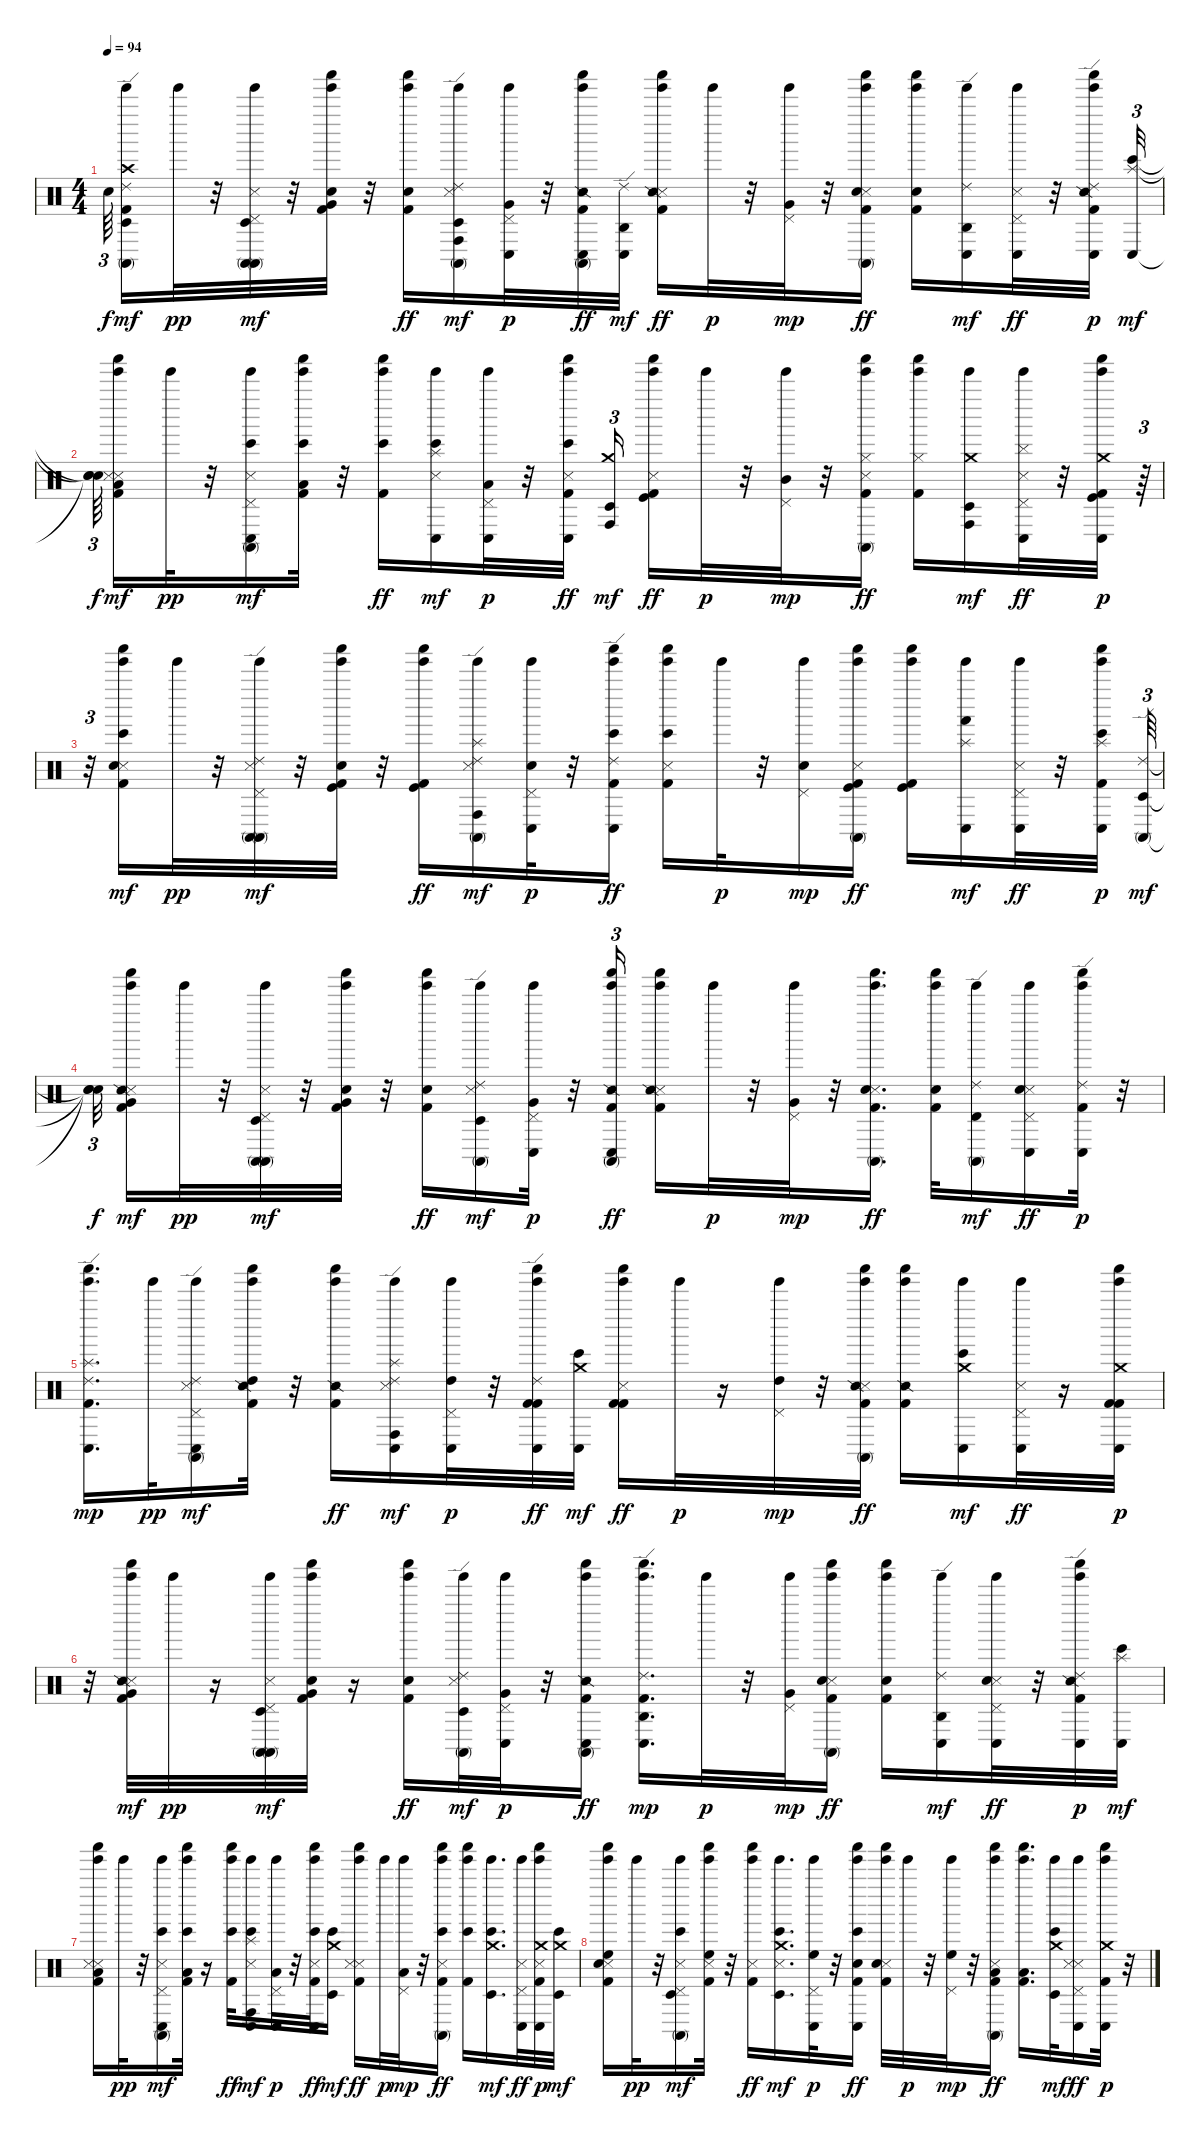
\track "" {instrument percussion}
\staff {score}
\articulation defaults
\ts (4 4)
\tempo 94
\clef neutral
\ks c "Snare (hit)"{t}.64{tu (3 2) dy f beam splitsecondary}
("Conga high (mute)" "Timbale low (hit)" "Ride (edge) 2" "Crash high (hit)" "Kick (hit) 2" "Tinkle Bell (hit)").16{dy mf volume 6} "Tinkle Bell (hit)".32{dy pp} r.32 ("Tinkle Bell (hit)" "Conga high (mute)" "Snare (side stick) 3" "Pedal Hi-Hat (hit)" "Conga high (mute)" "Timbale low (hit)").32{dy mf} r.32 ("Kick (hit) 2" "Tinkle Bell (hit)" "Shaker (hit)" "Snare (hit) 2" "Very Low Tom (hit)").32 r.32 ("Kick (hit) 2" "Tinkle Bell (hit)" "Shaker (hit)" "Snare (hit) 2").16{dy ff} ("Tinkle Bell (hit)" "Conga high (hit)" "Snare (side stick) 3" "Timbale low (hit)" "Conga high (mute)" "Ride (edge) 2").16{dy mf} ("Tinkle Bell (hit)" "Conga low (hit)" "Pedal Hi-Hat (hit)" "Very Low Tom (hit)").32{dy p} r.32 ("Kick (hit) 2" "Tinkle Bell (hit)" "Shaker (hit)" "Conga low (hit)" "Snare (side stick) 2" "Conga high (mute)").32{dy ff} ("Conga low (hit)" "Agogo high (hit)" "Ride (edge) 2").32{dy mf volume 6} ("Kick (hit) 2" "Tinkle Bell (hit)" "Shaker (hit)" "Snare (side stick) 3" "Snare (side stick) 2").16{dy ff} "Tinkle Bell (hit)".32{dy p} r.32 ("Tinkle Bell (hit)" "Pedal Hi-Hat (hit)" "Very Low Tom (hit)").32{dy mp} r.32 ("Conga high (mute)" "Kick (hit) 2" "Tinkle Bell (hit)" "Shaker (hit)" "Snare (side stick) 3" "Snare (hit) 2").16{dy ff} ("Kick (hit) 2" "Tinkle Bell (hit)" "Shaker (hit)" "Snare (hit) 2").16 ("Tinkle Bell (hit)" "Conga low (hit)" "Ride (edge) 2" "Agogo high (hit)").16{dy mf} ("Tinkle Bell (hit)" "Conga low (hit)" "Snare (side stick) 3" "Pedal Hi-Hat (hit)").32{dy ff} r.32 ("Kick (hit) 2" "Tinkle Bell (hit)" "Shaker (hit)" "Conga low (hit)" "Snare (side stick) 2" "Ride (edge) 2").32{dy p volume 7} ("Bongo High (hit)" "Conga low (hit)" "Splash (hit)").32{tu (3 2) dy mf volume 6} |
("Snare (hit)"{t} "Snare (hit)"{t} "Snare (hit)"{t}).64{tu (3 2) dy f beam splitsecondary} ("Kick (hit) 2" "Tinkle Bell (hit)" "Shaker (hit)" "Snare (side stick) 3" "Metronome (hit)" "Low Tom (hit)").16{dy mf} "Tinkle Bell (hit)".32{dy pp} r.32 ("Tinkle Bell (hit)" "Conga high (mute)" "Snare (side stick) 3" "Pedal Hi-Hat (hit)" "Bongo High (hit)" "Conga low (hit)").16{dy mf} ("Kick (hit) 2" "Tinkle Bell (hit)" "Shaker (hit)" "Bongo High (hit)" "Low Tom (hit)").32 r.32 ("Kick (hit) 2" "Tinkle Bell (hit)" "Shaker (hit)" "Bongo High (hit)").16{dy ff} ("Tinkle Bell (hit)" "Snare (side stick) 3" "Conga low (hit)" "Bongo High (hit)" "Splash (hit)").16{dy mf} ("Tinkle Bell (hit)" "Conga low (hit)" "Pedal Hi-Hat (hit)" "Low Tom (hit)").32{dy p} r.32 ("Kick (hit) 2" "Tinkle Bell (hit)" "Shaker (hit)" "Conga low (hit)" "Metronome (hit)" "Bongo High (hit)").32{dy ff volume 7} ("Conga high (hit)" "Timbale low (hit)" "Crash medium (hit)").16{tu (3 2) dy mf volume 6} ("Kick (hit) 2" "Tinkle Bell (hit)" "Shaker (hit)" "Snare (side stick) 3" "Kick (hit)").16{dy ff} "Tinkle Bell (hit)".32{dy p} r.32 ("Tinkle Bell (hit)" "Pedal Hi-Hat (hit)" "Mid Tom (hit)").32{dy mp} r.32 ("Conga high (mute)" "Kick (hit) 2" "Tinkle Bell (hit)" "Shaker (hit)" "Snare (side stick) 3" "Hi-Hat (closed)").16{dy ff} ("Kick (hit) 2" "Tinkle Bell (hit)" "Shaker (hit)" "Hi-Hat (closed)").16 ("Tinkle Bell (hit)" "Conga high (hit)" "Crash medium (hit)" "Timbale low (hit)").16{dy mf} ("Tinkle Bell (hit)" "Conga low (hit)" "Snare (side stick) 3" "Pedal Hi-Hat (hit)" "Cymbal (hit)").32{dy ff} r.32 ("Kick (hit) 2" "Tinkle Bell (hit)" "Shaker (hit)" "Conga low (hit)" "Kick (hit)" "Crash medium (hit)").32{dy p} r.64{tu (3 2)} |
r.32{tu (3 2)} ("Kick (hit) 2" "Tinkle Bell (hit)" "Shaker (hit)" "Snare (side stick) 3" "Bongo High (hit)" "Electric Snare (hit)").16{dy mf} "Tinkle Bell (hit)".32{dy pp} r.32 ("Tinkle Bell (hit)" "Conga high (mute)" "Snare (side stick) 3" "Pedal Hi-Hat (hit)" "Ride (edge) 2" "Conga high (mute)").32{dy mf} r.32 ("Kick (hit) 2" "Tinkle Bell (hit)" "Shaker (hit)" "Kick (hit)" "Electric Snare (hit)").32 r.32 ("Kick (hit) 2" "Tinkle Bell (hit)" "Shaker (hit)" "Kick (hit)").16{dy ff} ("Tinkle Bell (hit)" "Conga high (hit)" "Snare (side stick) 3" "Conga high (mute)" "Ride (edge) 2" "Splash (hit)").16{dy mf} ("Tinkle Bell (hit)" "Conga low (hit)" "Pedal Hi-Hat (hit)" "Electric Snare (hit)").32{dy p} r.32 ("Kick (hit) 2" "Tinkle Bell (hit)" "Shaker (hit)" "Conga low (hit)" "Bongo High (hit)" "Ride (edge) 2").16{dy ff volume 7} ("Kick (hit) 2" "Tinkle Bell (hit)" "Shaker (hit)" "Snare (side stick) 3" "Bongo High (hit)").16 "Tinkle Bell (hit)".32{dy p} r.32 ("Tinkle Bell (hit)" "Pedal Hi-Hat (hit)" "Electric Snare (hit)").16{dy mp} ("Conga high (mute)" "Kick (hit) 2" "Tinkle Bell (hit)" "Shaker (hit)" "Snare (side stick) 3" "Kick (hit)").16{dy ff} ("Kick (hit) 2" "Tinkle Bell (hit)" "Shaker (hit)" "Kick (hit)").16 ("Tinkle Bell (hit)" "Hand (hit)" "Splash (hit)" "Conga low (hit)").16{dy mf} ("Tinkle Bell (hit)" "Conga low (hit)" "Snare (side stick) 3" "Pedal Hi-Hat (hit)").32{dy ff} r.32 ("Kick (hit) 2" "Tinkle Bell (hit)" "Shaker (hit)" "Conga low (hit)" "Bongo High (hit)" "Splash (hit)").32{dy p volume 7} ("Conga high (mute)" "Timbale low (hit)" "Ride (edge) 2").64{tu (3 2) dy mf volume 6} |
("Snare (hit)"{t} "Snare (hit)"{t} "Snare (hit)"{t}).32{tu (3 2) dy f beam splitsecondary} ("Kick (hit) 2" "Tinkle Bell (hit)" "Shaker (hit)" "Snare (side stick) 3" "Snare (side stick) 2" "Very Low Tom (hit)").16{dy mf} "Tinkle Bell (hit)".32{dy pp} r.32 ("Tinkle Bell (hit)" "Conga high (mute)" "Snare (side stick) 3" "Pedal Hi-Hat (hit)" "Conga high (mute)" "Timbale low (hit)").32{dy mf} r.32 ("Kick (hit) 2" "Tinkle Bell (hit)" "Shaker (hit)" "Snare (hit) 2" "Very Low Tom (hit)").32 r.32 ("Kick (hit) 2" "Tinkle Bell (hit)" "Shaker (hit)" "Snare (hit) 2").16{dy ff} ("Tinkle Bell (hit)" "Snare (side stick) 3" "Timbale low (hit)" "Conga high (mute)" "Ride (edge) 2").16{dy mf} ("Tinkle Bell (hit)" "Conga low (hit)" "Pedal Hi-Hat (hit)" "Very Low Tom (hit)").32{dy p} r.32 ("Kick (hit) 2" "Tinkle Bell (hit)" "Shaker (hit)" "Conga low (hit)" "Snare (side stick) 2" "Conga high (mute)").16{tu (3 2) dy ff volume 7} ("Kick (hit) 2" "Tinkle Bell (hit)" "Shaker (hit)" "Snare (side stick) 3" "Snare (side stick) 2").16 "Tinkle Bell (hit)".32{dy p} r.32 ("Tinkle Bell (hit)" "Pedal Hi-Hat (hit)" "Very Low Tom (hit)").32{dy mp} r.32 ("Kick (hit) 2" "Tinkle Bell (hit)" "Shaker (hit)" "Conga high (mute)" "Snare (side stick) 3" "Snare (hit) 2").16{d dy ff} ("Kick (hit) 2" "Tinkle Bell (hit)" "Shaker (hit)" "Snare (hit) 2").32 ("Tinkle Bell (hit)" "Conga high (mute)" "Ride (edge) 2" "Timbale high (hit)").16{dy mf} ("Tinkle Bell (hit)" "Conga low (hit)" "Snare (side stick) 3" "Pedal Hi-Hat (hit)" "Snare (hit) 2").16{dy ff} ("Kick (hit) 2" "Tinkle Bell (hit)" "Shaker (hit)" "Conga low (hit)" "Ride (edge) 2").32{dy p volume 7} r.32 |
("Ride (edge) 2" "Conga low (hit)" "Splash (hit)" "Kick (hit) 2" "Tinkle Bell (hit)" "Shaker (hit)").16{d dy mp volume 6} "Tinkle Bell (hit)".32{dy pp} ("Tinkle Bell (hit)" "Conga high (mute)" "Snare (side stick) 3" "Pedal Hi-Hat (hit)" "Ride (edge) 2" "Conga low (hit)").16{dy mf} ("Kick (hit) 2" "Tinkle Bell (hit)" "Shaker (hit)" "Snare (side stick) 2" "High Tom (hit)").32 r.32 ("Kick (hit) 2" "Tinkle Bell (hit)" "Shaker (hit)" "Snare (side stick) 2").16{dy ff} ("Tinkle Bell (hit)" "Conga high (hit)" "Snare (side stick) 3" "Conga low (hit)" "Ride (edge) 2" "Splash (hit)").16{dy mf} ("Tinkle Bell (hit)" "Conga low (hit)" "Pedal Hi-Hat (hit)" "High Tom (hit)").32{dy p} r.32 ("Kick (hit) 2" "Tinkle Bell (hit)" "Shaker (hit)" "Conga low (hit)" "Kick (hit) 2" "Ride (edge) 2").32{dy ff} ("Bongo High (hit)" "Conga low (hit)" "Crash medium (hit)").32{dy mf volume 6} ("Kick (hit) 2" "Tinkle Bell (hit)" "Shaker (hit)" "Snare (side stick) 3" "Kick (hit) 2").16{dy ff} "Tinkle Bell (hit)".32{dy p} r.16 ("Tinkle Bell (hit)" "Pedal Hi-Hat (hit)" "High Tom (hit)").32{dy mp} r.32 ("Conga high (mute)" "Kick (hit) 2" "Tinkle Bell (hit)" "Shaker (hit)" "Snare (side stick) 3" "Snare (side stick) 2").32{dy ff} ("Kick (hit) 2" "Tinkle Bell (hit)" "Shaker (hit)" "Snare (side stick) 2").16 ("Tinkle Bell (hit)" "Bongo High (hit)" "Crash medium (hit)" "Conga low (hit)").16{dy mf} ("Tinkle Bell (hit)" "Conga low (hit)" "Snare (side stick) 3" "Pedal Hi-Hat (hit)").32{dy ff} r.16 ("Kick (hit) 2" "Tinkle Bell (hit)" "Shaker (hit)" "Conga low (hit)" "Kick (hit) 2" "Crash medium (hit)").32{dy p volume 7} |
r.32 ("Kick (hit) 2" "Tinkle Bell (hit)" "Shaker (hit)" "Snare (side stick) 3" "Snare (side stick) 2" "Very Low Tom (hit)").32{dy mf} "Tinkle Bell (hit)".32{dy pp} r.16 ("Tinkle Bell (hit)" "Conga high (mute)" "Snare (side stick) 3" "Pedal Hi-Hat (hit)" "Conga high (mute)" "Timbale low (hit)").32{dy mf} ("Kick (hit) 2" "Tinkle Bell (hit)" "Shaker (hit)" "Snare (hit) 2" "Very Low Tom (hit)").32 r.16 ("Kick (hit) 2" "Tinkle Bell (hit)" "Shaker (hit)" "Snare (hit) 2").16{dy ff} ("Tinkle Bell (hit)" "Snare (side stick) 3" "Timbale low (hit)" "Conga high (mute)" "Ride (edge) 2").32{dy mf} ("Tinkle Bell (hit)" "Conga low (hit)" "Pedal Hi-Hat (hit)" "Very Low Tom (hit)").32{dy p} r.32 ("Kick (hit) 2" "Tinkle Bell (hit)" "Shaker (hit)" "Conga low (hit)" "Snare (side stick) 2" "Conga high (mute)").16{dy ff volume 7} ("Conga low (hit)" "Agogo high (hit)" "Ride (edge) 2" "Kick (hit) 2" "Tinkle Bell (hit)" "Shaker (hit)").16{d dy mp volume 6} "Tinkle Bell (hit)".32{dy p} r.32 ("Tinkle Bell (hit)" "Pedal Hi-Hat (hit)" "Very Low Tom (hit)").32{dy mp} ("Conga high (mute)" "Kick (hit) 2" "Tinkle Bell (hit)" "Shaker (hit)" "Snare (side stick) 3" "Snare (hit) 2").16{dy ff} ("Kick (hit) 2" "Tinkle Bell (hit)" "Shaker (hit)" "Snare (hit) 2").16 ("Tinkle Bell (hit)" "Conga low (hit)" "Ride (edge) 2" "Agogo high (hit)").16{dy mf} ("Tinkle Bell (hit)" "Conga low (hit)" "Snare (side stick) 3" "Pedal Hi-Hat (hit)" "Snare (hit) 2").32{dy ff} r.32 ("Kick (hit) 2" "Tinkle Bell (hit)" "Shaker (hit)" "Conga low (hit)" "Snare (side stick) 2" "Ride (edge) 2").32{dy p volume 7} ("Bongo High (hit)" "Conga low (hit)" "Splash (hit)").32{dy mf volume 6} |
("Kick (hit) 2" "Tinkle Bell (hit)" "Shaker (hit)" "Snare (side stick) 3" "Metronome (hit)" "Low Tom (hit)").16 "Tinkle Bell (hit)".32{dy pp} r.32 ("Tinkle Bell (hit)" "Conga high (mute)" "Snare (side stick) 3" "Pedal Hi-Hat (hit)" "Bongo High (hit)" "Conga low (hit)").16{dy mf} ("Kick (hit) 2" "Tinkle Bell (hit)" "Shaker (hit)" "Bongo High (hit)" "Low Tom (hit)").32 r.16 ("Kick (hit) 2" "Tinkle Bell (hit)" "Shaker (hit)" "Bongo High (hit)").32{dy ff} ("Tinkle Bell (hit)" "Conga high (hit)" "Snare (side stick) 3" "Conga low (hit)" "Bongo High (hit)" "Splash (hit)").16{dy mf} ("Tinkle Bell (hit)" "Conga low (hit)" "Pedal Hi-Hat (hit)" "Low Tom (hit)").32{dy p} r.32 ("Kick (hit) 2" "Tinkle Bell (hit)" "Shaker (hit)" "Conga low (hit)" "Metronome (hit)" "Bongo High (hit)").32{dy ff volume 7} ("Bongo High (hit)" "Timbale low (hit)" "Crash medium (hit)").16{dy mf volume 6} ("Kick (hit) 2" "Tinkle Bell (hit)" "Shaker (hit)" "Snare (side stick) 3" "Metronome (hit)").16{dy ff} "Tinkle Bell (hit)".32{dy p} ("Tinkle Bell (hit)" "Pedal Hi-Hat (hit)" "Low Tom (hit)").32{dy mp} r.32 ("Conga high (mute)" "Kick (hit) 2" "Tinkle Bell (hit)" "Shaker (hit)" "Snare (side stick) 3" "Bongo High (hit)").16{dy ff} ("Kick (hit) 2" "Tinkle Bell (hit)" "Shaker (hit)" "Bongo High (hit)").16 ("Tinkle Bell (hit)" "Bongo High (hit)" "Crash medium (hit)" "Timbale low (hit)").16{d dy mf} ("Tinkle Bell (hit)" "Conga low (hit)" "Snare (side stick) 3" "Pedal Hi-Hat (hit)").32{dy ff} ("Kick (hit) 2" "Tinkle Bell (hit)" "Shaker (hit)" "Conga low (hit)" "Metronome (hit)" "Crash medium (hit)").32{dy p volume 7} ("Bongo High (hit)" "Timbale low (hit)" "Crash medium (hit)").32{dy mf volume 6} |
("Kick (hit) 2" "Tinkle Bell (hit)" "Shaker (hit)" "Snare (side stick) 3" "Snare (hit) 2" "High Floor Tom (hit)").16 "Tinkle Bell (hit)".32{dy pp} r.32 ("Tinkle Bell (hit)" "Conga high (mute)" "Snare (side stick) 3" "Pedal Hi-Hat (hit)" "Bongo High (hit)" "Timbale low (hit)").16{dy mf} ("Kick (hit) 2" "Tinkle Bell (hit)" "Shaker (hit)" "Metronome (hit)" "High Floor Tom (hit)").32 r.32 ("Kick (hit) 2" "Tinkle Bell (hit)" "Shaker (hit)" "Metronome (hit)").16{dy ff} ("Tinkle Bell (hit)" "Snare (side stick) 3" "Timbale low (hit)" "Bongo High (hit)" "Crash medium (hit)").16{d dy mf} ("Tinkle Bell (hit)" "Conga low (hit)" "Pedal Hi-Hat (hit)" "High Floor Tom (hit)").32{dy p} r.32 ("Kick (hit) 2" "Tinkle Bell (hit)" "Shaker (hit)" "Conga low (hit)" "Snare (hit) 2" "Bongo High (hit)").16{dy ff} ("Kick (hit) 2" "Tinkle Bell (hit)" "Shaker (hit)" "Snare (side stick) 3" "Snare (hit) 2").32 "Tinkle Bell (hit)".32{dy p} r.32 ("Tinkle Bell (hit)" "Pedal Hi-Hat (hit)" "High Floor Tom (hit)").32{dy mp} r.32 ("Kick (hit) 2" "Tinkle Bell (hit)" "Shaker (hit)" "Conga high (mute)" "Snare (side stick) 3" "Low Tom (hit)").16{dy ff} ("Kick (hit) 2" "Tinkle Bell (hit)" "Shaker (hit)" "Low Tom (hit)").16{d} ("Tinkle Bell (hit)" "Bongo High (hit)" "Crash medium (hit)" "Timbale low (hit)").32{dy mf} ("Tinkle Bell (hit)" "Conga low (hit)" "Snare (side stick) 3" "Pedal Hi-Hat (hit)" "Metronome (hit)").16{dy ff} ("Kick (hit) 2" "Tinkle Bell (hit)" "Shaker (hit)" "Conga low (hit)" "Crash medium (hit)").32{dy p volume 7} r.32
